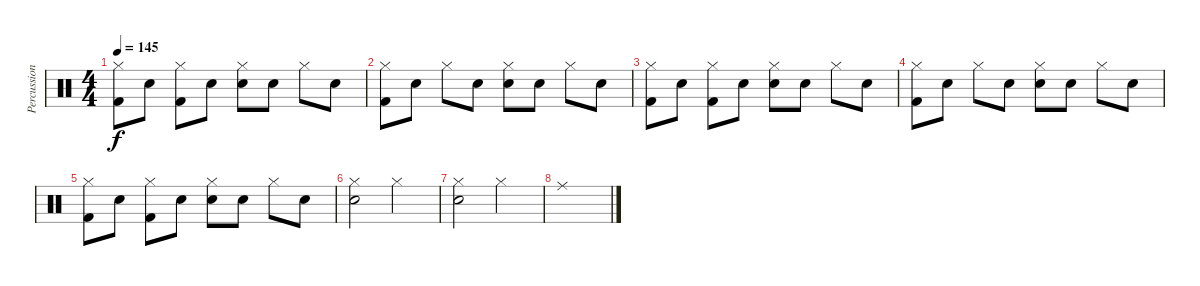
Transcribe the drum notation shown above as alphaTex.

\track ("Percussion" "Percussion") {instrument percussion}
\staff {score}
\articulation defaults
\ts (4 4)
\tempo 145
\clef neutral
\ks c
("Hi-Hat (closed)" "Kick (hit) 2").8{dy f} "Snare (hit)"{x}.8 ("Hi-Hat (closed)" "Kick (hit) 2").8 "Snare (hit)"{x}.8 ("Hi-Hat (closed)" "Electric Snare (hit)").8 "Snare (hit)"{x}.8 "Hi-Hat (closed)".8 "Snare (hit)"{x}.8 |
("Hi-Hat (closed)" "Kick (hit) 2").8 "Snare (hit)"{x}.8 "Hi-Hat (closed)".8 "Snare (hit)"{x}.8 ("Hi-Hat (closed)" "Electric Snare (hit)").8 "Snare (hit)"{x}.8 "Hi-Hat (closed)".8 "Snare (hit)"{x}.8 |
("Hi-Hat (closed)" "Kick (hit) 2").8 "Snare (hit)"{x}.8 ("Hi-Hat (closed)" "Kick (hit) 2").8 "Snare (hit)"{x}.8 ("Hi-Hat (closed)" "Electric Snare (hit)").8 "Snare (hit)"{x}.8 "Hi-Hat (closed)".8 "Snare (hit)"{x}.8 |
("Hi-Hat (closed)" "Kick (hit) 2").8 "Snare (hit)"{x}.8 "Hi-Hat (closed)".8 "Snare (hit)"{x}.8 ("Hi-Hat (closed)" "Electric Snare (hit)").8 "Snare (hit)"{x}.8 "Hi-Hat (closed)".8 "Snare (hit)"{x}.8 |
("Hi-Hat (closed)" "Kick (hit) 2").8 "Snare (hit)"{x}.8 ("Hi-Hat (closed)" "Kick (hit) 2").8 "Snare (hit)"{x}.8 ("Hi-Hat (closed)" "Electric Snare (hit)").8 "Snare (hit)"{x}.8 "Hi-Hat (closed)".8 "Snare (hit)"{x}.8 |
("Hi-Hat (closed)" "Snare (hit)"{x}).2 "Hi-Hat (closed)".2 |
("Hi-Hat (closed)" "Snare (hit)"{x}).2 "Hi-Hat (closed)".2 |
"Ride (middle)".1
